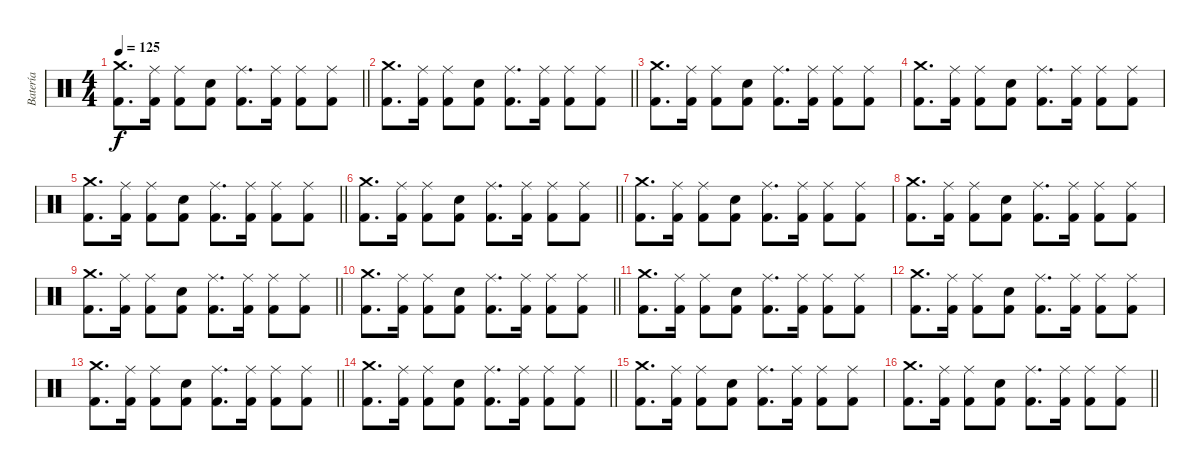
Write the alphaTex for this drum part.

\track ("Batería" "Batería") {instrument percussion}
\staff {score}
\articulation defaults
\ts (4 4)
\tempo 125
\clef neutral
\barLineRight lightlight
\ks c
("Crash medium (hit)" "Kick (hit) 2").8{d dy f} ("Ride (middle)" "Kick (hit) 2").16 ("Ride (middle)" "Kick (hit) 2").8 ("Electric Snare (hit)" "Kick (hit) 2").8 ("Ride (middle)" "Kick (hit) 2").8{d} ("Ride (middle)" "Kick (hit) 2").16 ("Ride (middle)" "Kick (hit) 2").8 ("Ride (middle)" "Kick (hit) 2").8 |
\barLineRight lightlight
("Crash medium (hit)" "Kick (hit) 2").8{d} ("Ride (middle)" "Kick (hit) 2").16 ("Ride (middle)" "Kick (hit) 2").8 ("Electric Snare (hit)" "Kick (hit) 2").8 ("Ride (middle)" "Kick (hit) 2").8{d} ("Ride (middle)" "Kick (hit) 2").16 ("Ride (middle)" "Kick (hit) 2").8 ("Ride (middle)" "Kick (hit) 2").8 |
("Crash medium (hit)" "Kick (hit) 2").8{d} ("Ride (middle)" "Kick (hit) 2").16 ("Ride (middle)" "Kick (hit) 2").8 ("Electric Snare (hit)" "Kick (hit) 2").8 ("Ride (middle)" "Kick (hit) 2").8{d} ("Ride (middle)" "Kick (hit) 2").16 ("Ride (middle)" "Kick (hit) 2").8 ("Ride (middle)" "Kick (hit) 2").8 |
("Crash medium (hit)" "Kick (hit) 2").8{d} ("Ride (middle)" "Kick (hit) 2").16 ("Ride (middle)" "Kick (hit) 2").8 ("Electric Snare (hit)" "Kick (hit) 2").8 ("Ride (middle)" "Kick (hit) 2").8{d} ("Ride (middle)" "Kick (hit) 2").16 ("Ride (middle)" "Kick (hit) 2").8 ("Ride (middle)" "Kick (hit) 2").8 |
\barLineRight lightlight
("Crash medium (hit)" "Kick (hit) 2").8{d} ("Ride (middle)" "Kick (hit) 2").16 ("Ride (middle)" "Kick (hit) 2").8 ("Electric Snare (hit)" "Kick (hit) 2").8 ("Ride (middle)" "Kick (hit) 2").8{d} ("Ride (middle)" "Kick (hit) 2").16 ("Ride (middle)" "Kick (hit) 2").8 ("Ride (middle)" "Kick (hit) 2").8 |
\barLineRight lightlight
("Crash medium (hit)" "Kick (hit) 2").8{d} ("Ride (middle)" "Kick (hit) 2").16 ("Ride (middle)" "Kick (hit) 2").8 ("Electric Snare (hit)" "Kick (hit) 2").8 ("Ride (middle)" "Kick (hit) 2").8{d} ("Ride (middle)" "Kick (hit) 2").16 ("Ride (middle)" "Kick (hit) 2").8 ("Ride (middle)" "Kick (hit) 2").8 |
("Crash medium (hit)" "Kick (hit) 2").8{d} ("Ride (middle)" "Kick (hit) 2").16 ("Ride (middle)" "Kick (hit) 2").8 ("Electric Snare (hit)" "Kick (hit) 2").8 ("Ride (middle)" "Kick (hit) 2").8{d} ("Ride (middle)" "Kick (hit) 2").16 ("Ride (middle)" "Kick (hit) 2").8 ("Ride (middle)" "Kick (hit) 2").8 |
("Crash medium (hit)" "Kick (hit) 2").8{d} ("Ride (middle)" "Kick (hit) 2").16 ("Ride (middle)" "Kick (hit) 2").8 ("Electric Snare (hit)" "Kick (hit) 2").8 ("Ride (middle)" "Kick (hit) 2").8{d} ("Ride (middle)" "Kick (hit) 2").16 ("Ride (middle)" "Kick (hit) 2").8 ("Ride (middle)" "Kick (hit) 2").8 |
\barLineRight lightlight
("Crash medium (hit)" "Kick (hit) 2").8{d} ("Ride (middle)" "Kick (hit) 2").16 ("Ride (middle)" "Kick (hit) 2").8 ("Electric Snare (hit)" "Kick (hit) 2").8 ("Ride (middle)" "Kick (hit) 2").8{d} ("Ride (middle)" "Kick (hit) 2").16 ("Ride (middle)" "Kick (hit) 2").8 ("Ride (middle)" "Kick (hit) 2").8 |
\barLineRight lightlight
("Crash medium (hit)" "Kick (hit) 2").8{d} ("Ride (middle)" "Kick (hit) 2").16 ("Ride (middle)" "Kick (hit) 2").8 ("Electric Snare (hit)" "Kick (hit) 2").8 ("Ride (middle)" "Kick (hit) 2").8{d} ("Ride (middle)" "Kick (hit) 2").16 ("Ride (middle)" "Kick (hit) 2").8 ("Ride (middle)" "Kick (hit) 2").8 |
("Crash medium (hit)" "Kick (hit) 2").8{d} ("Ride (middle)" "Kick (hit) 2").16 ("Ride (middle)" "Kick (hit) 2").8 ("Electric Snare (hit)" "Kick (hit) 2").8 ("Ride (middle)" "Kick (hit) 2").8{d} ("Ride (middle)" "Kick (hit) 2").16 ("Ride (middle)" "Kick (hit) 2").8 ("Ride (middle)" "Kick (hit) 2").8 |
("Crash medium (hit)" "Kick (hit) 2").8{d} ("Ride (middle)" "Kick (hit) 2").16 ("Ride (middle)" "Kick (hit) 2").8 ("Electric Snare (hit)" "Kick (hit) 2").8 ("Ride (middle)" "Kick (hit) 2").8{d} ("Ride (middle)" "Kick (hit) 2").16 ("Ride (middle)" "Kick (hit) 2").8 ("Ride (middle)" "Kick (hit) 2").8 |
\barLineRight lightlight
("Crash medium (hit)" "Kick (hit) 2").8{d} ("Ride (middle)" "Kick (hit) 2").16 ("Ride (middle)" "Kick (hit) 2").8 ("Electric Snare (hit)" "Kick (hit) 2").8 ("Ride (middle)" "Kick (hit) 2").8{d} ("Ride (middle)" "Kick (hit) 2").16 ("Ride (middle)" "Kick (hit) 2").8 ("Ride (middle)" "Kick (hit) 2").8 |
\barLineRight lightlight
("Crash medium (hit)" "Kick (hit) 2").8{d} ("Ride (middle)" "Kick (hit) 2").16 ("Ride (middle)" "Kick (hit) 2").8 ("Electric Snare (hit)" "Kick (hit) 2").8 ("Ride (middle)" "Kick (hit) 2").8{d} ("Ride (middle)" "Kick (hit) 2").16 ("Ride (middle)" "Kick (hit) 2").8 ("Ride (middle)" "Kick (hit) 2").8 |
("Crash medium (hit)" "Kick (hit) 2").8{d} ("Ride (middle)" "Kick (hit) 2").16 ("Ride (middle)" "Kick (hit) 2").8 ("Electric Snare (hit)" "Kick (hit) 2").8 ("Ride (middle)" "Kick (hit) 2").8{d} ("Ride (middle)" "Kick (hit) 2").16 ("Ride (middle)" "Kick (hit) 2").8 ("Ride (middle)" "Kick (hit) 2").8 |
\barLineRight lightlight
("Crash medium (hit)" "Kick (hit) 2").8{d} ("Ride (middle)" "Kick (hit) 2").16 ("Ride (middle)" "Kick (hit) 2").8 ("Electric Snare (hit)" "Kick (hit) 2").8 ("Ride (middle)" "Kick (hit) 2").8{d} ("Ride (middle)" "Kick (hit) 2").16 ("Ride (middle)" "Kick (hit) 2").8 ("Ride (middle)" "Kick (hit) 2").8
